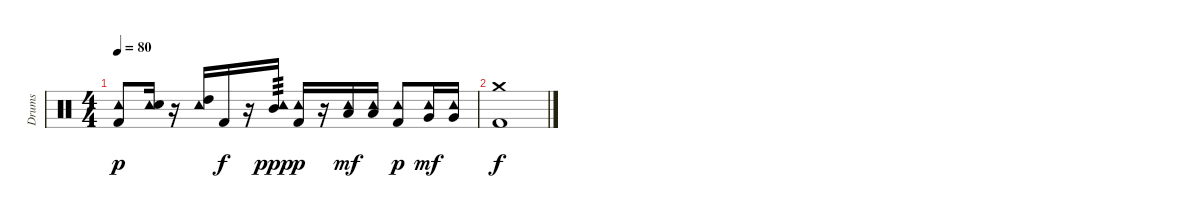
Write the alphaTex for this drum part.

\track ("Drums" "Drums") {instrument percussion}
\staff {score}
\articulation defaults
\ts (4 4)
\tempo 80
\clef neutral
\ks c
("Tambourine (hit)" "Kick (hit) 2").8{dy p} ("Tambourine (hit)" "Electric Snare (hit)").16 r.16 ("Tambourine (hit)" "High Tom (hit)").16 "Kick (hit) 2".16{dy f} r.16 ("Tambourine (hit)" "Mid Tom (hit)").16{tp 3 dy ppp} ("Tambourine (hit)" "Kick (hit) 2").16{dy p} r.16 ("Tambourine (hit)" "Low Tom (hit)").16{dy mf} ("Tambourine (hit)" "Low Tom (hit)").16 ("Tambourine (hit)" "Kick (hit) 2").8{dy p} ("Tambourine (hit)" "Very Low Tom (hit)").16{dy mf} ("Tambourine (hit)" "Very Low Tom (hit)").16 |
("Crash medium (hit)" "Kick (hit) 2").1{dy f}
